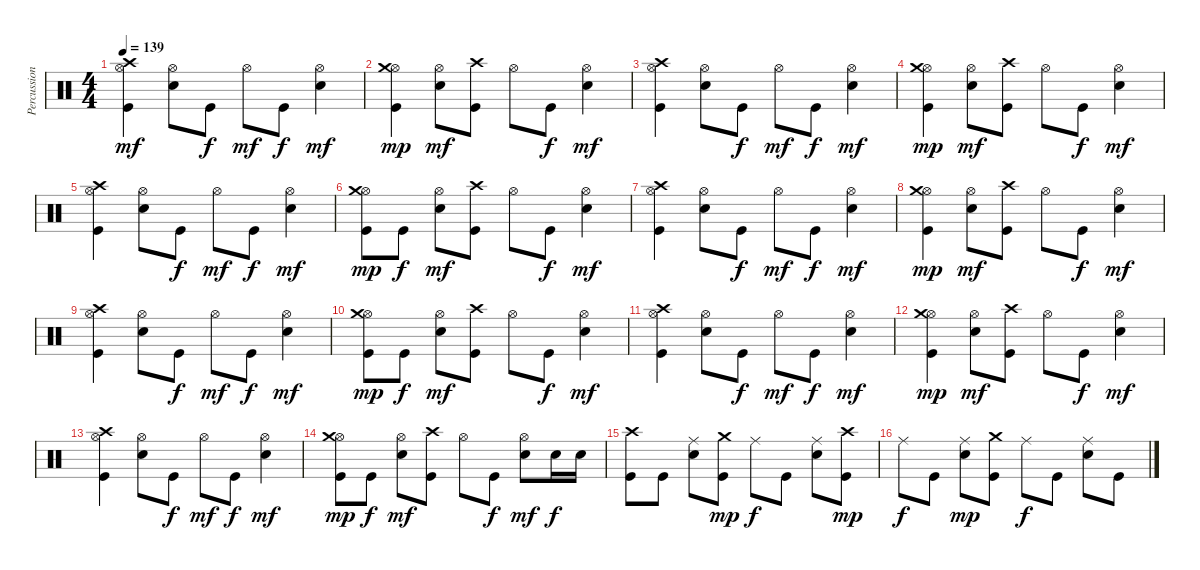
\track ("Percussions" "Percussion") {instrument percussion}
\staff {score}
\articulation defaults
\ts (4 4)
\tempo 139
\clef neutral
\ks c
("Kick (hit)" "Hi-Hat (open)" "Crash high (hit)").4{dy mf} ("Electric Snare (hit)" "Hi-Hat (open)").8 "Kick (hit)".8{dy f} "Hi-Hat (open)".8{dy mf} "Kick (hit)".8{dy f} ("Electric Snare (hit)" "Hi-Hat (open)").4{dy mf} |
("Kick (hit)" "Hi-Hat (open)" "Crash medium (hit)").4{dy mp} ("Electric Snare (hit)" "Hi-Hat (open)").8{dy mf} ("Kick (hit)" "Crash high (hit)").8 "Hi-Hat (open)".8 "Kick (hit)".8{dy f} ("Electric Snare (hit)" "Hi-Hat (open)").4{dy mf} |
("Kick (hit)" "Hi-Hat (open)" "Crash high (hit)").4 ("Electric Snare (hit)" "Hi-Hat (open)").8 "Kick (hit)".8{dy f} "Hi-Hat (open)".8{dy mf} "Kick (hit)".8{dy f} ("Electric Snare (hit)" "Hi-Hat (open)").4{dy mf} |
("Kick (hit)" "Hi-Hat (open)" "Crash medium (hit)").4{dy mp} ("Electric Snare (hit)" "Hi-Hat (open)").8{dy mf} ("Kick (hit)" "Crash high (hit)").8 "Hi-Hat (open)".8 "Kick (hit)".8{dy f} ("Electric Snare (hit)" "Hi-Hat (open)").4{dy mf} |
("Kick (hit)" "Hi-Hat (open)" "Crash high (hit)").4 ("Electric Snare (hit)" "Hi-Hat (open)").8 "Kick (hit)".8{dy f} "Hi-Hat (open)".8{dy mf} "Kick (hit)".8{dy f} ("Electric Snare (hit)" "Hi-Hat (open)").4{dy mf} |
("Kick (hit)" "Hi-Hat (open)" "Crash medium (hit)").8{dy mp} "Kick (hit)".8{dy f} ("Electric Snare (hit)" "Hi-Hat (open)").8{dy mf} ("Kick (hit)" "Crash high (hit)").8 "Hi-Hat (open)".8 "Kick (hit)".8{dy f} ("Electric Snare (hit)" "Hi-Hat (open)").4{dy mf} |
("Kick (hit)" "Hi-Hat (open)" "Crash high (hit)").4 ("Electric Snare (hit)" "Hi-Hat (open)").8 "Kick (hit)".8{dy f} "Hi-Hat (open)".8{dy mf} "Kick (hit)".8{dy f} ("Electric Snare (hit)" "Hi-Hat (open)").4{dy mf} |
("Kick (hit)" "Hi-Hat (open)" "Crash medium (hit)").4{dy mp} ("Electric Snare (hit)" "Hi-Hat (open)").8{dy mf} ("Kick (hit)" "Crash high (hit)").8 "Hi-Hat (open)".8 "Kick (hit)".8{dy f} ("Electric Snare (hit)" "Hi-Hat (open)").4{dy mf} |
("Kick (hit)" "Hi-Hat (open)" "Crash high (hit)").4 ("Electric Snare (hit)" "Hi-Hat (open)").8 "Kick (hit)".8{dy f} "Hi-Hat (open)".8{dy mf} "Kick (hit)".8{dy f} ("Electric Snare (hit)" "Hi-Hat (open)").4{dy mf} |
("Kick (hit)" "Hi-Hat (open)" "Crash medium (hit)").8{dy mp} "Kick (hit)".8{dy f} ("Electric Snare (hit)" "Hi-Hat (open)").8{dy mf} ("Kick (hit)" "Crash high (hit)").8 "Hi-Hat (open)".8 "Kick (hit)".8{dy f} ("Electric Snare (hit)" "Hi-Hat (open)").4{dy mf} |
("Kick (hit)" "Hi-Hat (open)" "Crash high (hit)").4 ("Electric Snare (hit)" "Hi-Hat (open)").8 "Kick (hit)".8{dy f} "Hi-Hat (open)".8{dy mf} "Kick (hit)".8{dy f} ("Electric Snare (hit)" "Hi-Hat (open)").4{dy mf} |
("Kick (hit)" "Hi-Hat (open)" "Crash medium (hit)").4{dy mp} ("Electric Snare (hit)" "Hi-Hat (open)").8{dy mf} ("Kick (hit)" "Crash high (hit)").8 "Hi-Hat (open)".8 "Kick (hit)".8{dy f} ("Electric Snare (hit)" "Hi-Hat (open)").4{dy mf} |
("Kick (hit)" "Hi-Hat (open)" "Crash high (hit)").4 ("Electric Snare (hit)" "Hi-Hat (open)").8 "Kick (hit)".8{dy f} "Hi-Hat (open)".8{dy mf} "Kick (hit)".8{dy f} ("Electric Snare (hit)" "Hi-Hat (open)").4{dy mf} |
("Kick (hit)" "Hi-Hat (open)" "Crash medium (hit)").8{dy mp} "Kick (hit)".8{dy f} ("Electric Snare (hit)" "Hi-Hat (open)").8{dy mf} ("Kick (hit)" "Crash high (hit)").8 "Hi-Hat (open)".8 "Kick (hit)".8{dy f} ("Electric Snare (hit)" "Hi-Hat (open)").8{dy mf} "Electric Snare (hit)".16{dy f} "Electric Snare (hit)".16 |
("Kick (hit)" "Crash high (hit)").8 "Kick (hit)".8 ("Electric Snare (hit)" "Ride (middle)").8 ("Kick (hit)" "Crash medium (hit)").8{dy mp} "Ride (middle)".8{dy f} "Kick (hit)".8 ("Electric Snare (hit)" "Ride (middle)").8 ("Kick (hit)" "Crash high (hit)").8{dy mp} |
"Ride (middle)".8{dy f} "Kick (hit)".8 ("Electric Snare (hit)" "Ride (middle)").8{dy mp} ("Kick (hit)" "Crash medium (hit)").8 "Ride (middle)".8{dy f} "Kick (hit)".8 ("Electric Snare (hit)" "Ride (middle)").8 "Kick (hit)".8
